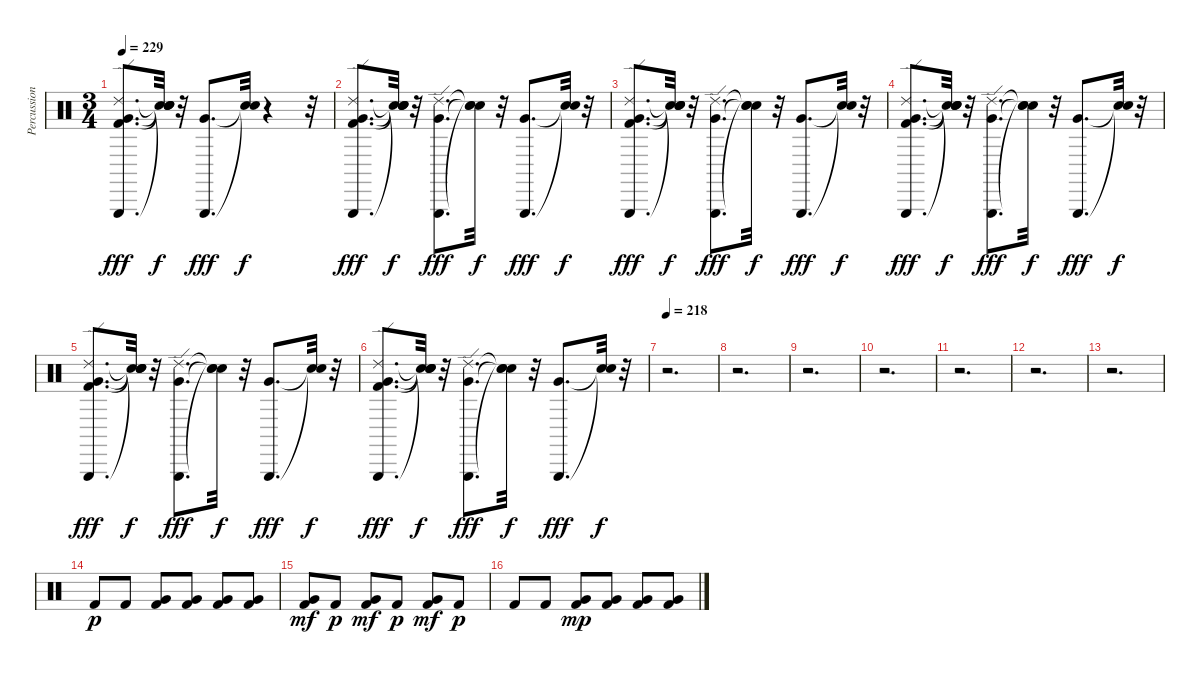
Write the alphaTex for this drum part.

\track ("Percussion." "Percussion") {instrument percussion}
\staff {score}
\articulation defaults
\ts (3 4)
\tempo 229
\clef neutral
\ks c
("Very Low Tom (hit)" "Triangle (hit)" "Ride (edge) 2" "Kick (hit) 2").8{d dy fff} ("Snare (hit)"{t} "Snare (hit)"{t} "Snare (hit)"{t} "Snare (hit)"{t}).32{dy f} r.32 ("Very Low Tom (hit)" "Triangle (hit)").8{d dy fff} ("Snare (hit)"{t} "Snare (hit)"{t}).32{dy f} r.4 r.32 |
("Very Low Tom (hit)" "Kick (hit) 2" "Ride (edge) 2" "Triangle (hit)").8{d dy fff} ("Snare (hit)"{t} "Snare (hit)"{t} "Snare (hit)"{t} "Snare (hit)"{t}).32{dy f} r.32 ("Very Low Tom (hit)" "Ride (edge) 2" "Triangle (hit)").8{d dy fff} ("Snare (hit)"{t} "Snare (hit)"{t} "Snare (hit)"{t}).32{dy f} r.32 ("Very Low Tom (hit)" "Triangle (hit)").8{d dy fff} ("Snare (hit)"{t} "Snare (hit)"{t}).32{dy f} r.32 |
("Very Low Tom (hit)" "Triangle (hit)" "Ride (edge) 2" "Kick (hit) 2").8{d dy fff} ("Snare (hit)"{t} "Snare (hit)"{t} "Snare (hit)"{t} "Snare (hit)"{t}).32{dy f} r.32 ("Very Low Tom (hit)" "Triangle (hit)" "Ride (edge) 2").8{d dy fff} ("Snare (hit)"{t} "Snare (hit)"{t} "Snare (hit)"{t}).32{dy f} r.32 ("Very Low Tom (hit)" "Triangle (hit)").8{d dy fff} ("Snare (hit)"{t} "Snare (hit)"{t}).32{dy f} r.32 |
("Very Low Tom (hit)" "Triangle (hit)" "Ride (edge) 2" "Kick (hit) 2").8{d dy fff} ("Snare (hit)"{t} "Snare (hit)"{t} "Snare (hit)"{t} "Snare (hit)"{t}).32{dy f} r.32 ("Very Low Tom (hit)" "Triangle (hit)" "Ride (edge) 2").8{d dy fff} ("Snare (hit)"{t} "Snare (hit)"{t} "Snare (hit)"{t}).32{dy f} r.32 ("Very Low Tom (hit)" "Triangle (hit)").8{d dy fff} ("Snare (hit)"{t} "Snare (hit)"{t}).32{dy f} r.32 |
("Very Low Tom (hit)" "Triangle (hit)" "Ride (edge) 2" "Kick (hit) 2").8{d dy fff} ("Snare (hit)"{t} "Snare (hit)"{t} "Snare (hit)"{t} "Snare (hit)"{t}).32{dy f} r.32 ("Very Low Tom (hit)" "Triangle (hit)" "Ride (edge) 2").8{d dy fff} ("Snare (hit)"{t} "Snare (hit)"{t} "Snare (hit)"{t}).32{dy f} r.32 ("Very Low Tom (hit)" "Triangle (hit)").8{d dy fff} ("Snare (hit)"{t} "Snare (hit)"{t}).32{dy f} r.32 |
("Very Low Tom (hit)" "Triangle (hit)" "Ride (edge) 2" "Kick (hit) 2").8{d dy fff} ("Snare (hit)"{t} "Snare (hit)"{t} "Snare (hit)"{t} "Snare (hit)"{t}).32{dy f} r.32 ("Very Low Tom (hit)" "Triangle (hit)" "Ride (edge) 2").8{d dy fff} ("Snare (hit)"{t} "Snare (hit)"{t} "Snare (hit)"{t}).32{dy f} r.32 ("Very Low Tom (hit)" "Triangle (hit)").8{d dy fff} ("Snare (hit)"{t} "Snare (hit)"{t}).32{dy f} r.32 |
\tempo 218
r.2{d} |
r.2{d} |
r.2{d} |
r.2{d} |
r.2{d} |
r.2{d} |
r.2{d} |
"Kick (hit) 2".8{dy p} "Kick (hit) 2".8 ("Very Low Tom (hit)" "Kick (hit) 2").8 ("Very Low Tom (hit)" "Kick (hit) 2").8 ("Very Low Tom (hit)" "Kick (hit) 2").8 ("Very Low Tom (hit)" "Kick (hit) 2").8 |
("Kick (hit) 2" "Very Low Tom (hit)").8{dy mf} "Kick (hit) 2".8{dy p} ("Kick (hit) 2" "Very Low Tom (hit)").8{dy mf} "Kick (hit) 2".8{dy p} ("Kick (hit) 2" "Very Low Tom (hit)").8{dy mf} "Kick (hit) 2".8{dy p} |
"Kick (hit) 2".8 "Kick (hit) 2".8 ("Kick (hit) 2" "Very Low Tom (hit)").8{dy mp} ("Kick (hit) 2" "Very Low Tom (hit)").8 ("Kick (hit) 2" "Very Low Tom (hit)").8 ("Kick (hit) 2" "Very Low Tom (hit)").8
